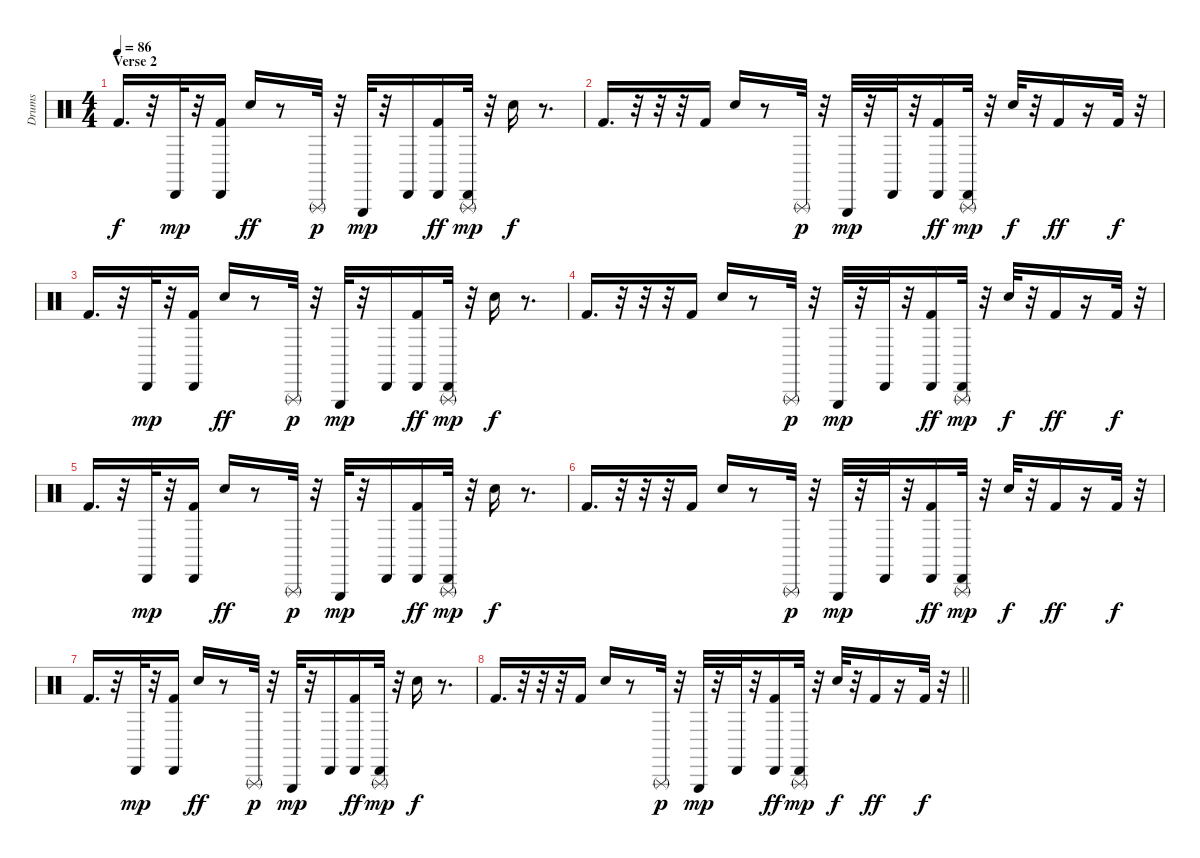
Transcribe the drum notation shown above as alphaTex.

\track ("Drums" "Drums") {instrument percussion}
\staff {score}
\articulation defaults
\ts (4 4)
\section ("" "Verse 2")
\tempo 86
\clef neutral
\ks c "Kick (hit) 2".16{d dy f}
r.32 "Cabasa (hit)".32{dy mp} r.32 ("Cabasa (hit)" "Kick (hit) 2").16 "Hand Clap (hit)".16{dy ff} r.8 "Triangle (rnute)".32{dy p} r.32 "Triangle (hit)".32{dy mp} r.32 "Cabasa (hit)".16 ("Cabasa (hit)" "Kick (hit) 2").16{dy ff} ("Cabasa (hit)" "Triangle (rnute)").32{dy mp} r.32 "Hand Clap (hit)".16{dy f} r.8{d} |
"Kick (hit) 2".16{d} r.32 r.32 r.32 "Kick (hit) 2".16 "Hand Clap (hit)".16 r.8 "Triangle (rnute)".32{dy p} r.32 "Triangle (hit)".32{dy mp} r.32 "Cabasa (hit)".32 r.32 ("Cabasa (hit)" "Kick (hit) 2").16{dy ff} ("Cabasa (hit)" "Triangle (rnute)").32{dy mp} r.32 "Hand Clap (hit)".32{dy f} r.32 "Kick (hit) 2".16{dy ff} r.16 "Kick (hit) 2".32{dy f} r.32 |
"Kick (hit) 2".16{d} r.32 "Cabasa (hit)".32{dy mp} r.32 ("Cabasa (hit)" "Kick (hit) 2").16 "Hand Clap (hit)".16{dy ff} r.8 "Triangle (rnute)".32{dy p} r.32 "Triangle (hit)".32{dy mp} r.32 "Cabasa (hit)".16 ("Cabasa (hit)" "Kick (hit) 2").16{dy ff} ("Cabasa (hit)" "Triangle (rnute)").32{dy mp} r.32 "Hand Clap (hit)".16{dy f} r.8{d} |
"Kick (hit) 2".16{d} r.32 r.32 r.32 "Kick (hit) 2".16 "Hand Clap (hit)".16 r.8 "Triangle (rnute)".32{dy p} r.32 "Triangle (hit)".32{dy mp} r.32 "Cabasa (hit)".32 r.32 ("Cabasa (hit)" "Kick (hit) 2").16{dy ff} ("Cabasa (hit)" "Triangle (rnute)").32{dy mp} r.32 "Hand Clap (hit)".32{dy f} r.32 "Kick (hit) 2".16{dy ff} r.16 "Kick (hit) 2".32{dy f} r.32 |
"Kick (hit) 2".16{d} r.32 "Cabasa (hit)".32{dy mp} r.32 ("Cabasa (hit)" "Kick (hit) 2").16 "Hand Clap (hit)".16{dy ff} r.8 "Triangle (rnute)".32{dy p} r.32 "Triangle (hit)".32{dy mp} r.32 "Cabasa (hit)".16 ("Cabasa (hit)" "Kick (hit) 2").16{dy ff} ("Cabasa (hit)" "Triangle (rnute)").32{dy mp} r.32 "Hand Clap (hit)".16{dy f} r.8{d} |
"Kick (hit) 2".16{d} r.32 r.32 r.32 "Kick (hit) 2".16 "Hand Clap (hit)".16 r.8 "Triangle (rnute)".32{dy p} r.32 "Triangle (hit)".32{dy mp} r.32 "Cabasa (hit)".32 r.32 ("Cabasa (hit)" "Kick (hit) 2").16{dy ff} ("Cabasa (hit)" "Triangle (rnute)").32{dy mp} r.32 "Hand Clap (hit)".32{dy f} r.32 "Kick (hit) 2".16{dy ff} r.16 "Kick (hit) 2".32{dy f} r.32 |
"Kick (hit) 2".16{d} r.32 "Cabasa (hit)".32{dy mp} r.32 ("Cabasa (hit)" "Kick (hit) 2").16 "Hand Clap (hit)".16{dy ff} r.8 "Triangle (rnute)".32{dy p} r.32 "Triangle (hit)".32{dy mp} r.32 "Cabasa (hit)".16 ("Cabasa (hit)" "Kick (hit) 2").16{dy ff} ("Cabasa (hit)" "Triangle (rnute)").32{dy mp} r.32 "Hand Clap (hit)".16{dy f} r.8{d} |
\barLineRight lightlight "Kick (hit) 2".16{d}
r.32 r.32 r.32 "Kick (hit) 2".16 "Hand Clap (hit)".16 r.8 "Triangle (rnute)".32{dy p} r.32 "Triangle (hit)".32{dy mp} r.32 "Cabasa (hit)".32 r.32 ("Cabasa (hit)" "Kick (hit) 2").16{dy ff} ("Cabasa (hit)" "Triangle (rnute)").32{dy mp} r.32 "Hand Clap (hit)".32{dy f} r.32 "Kick (hit) 2".16{dy ff} r.16 "Kick (hit) 2".32{dy f} r.32
